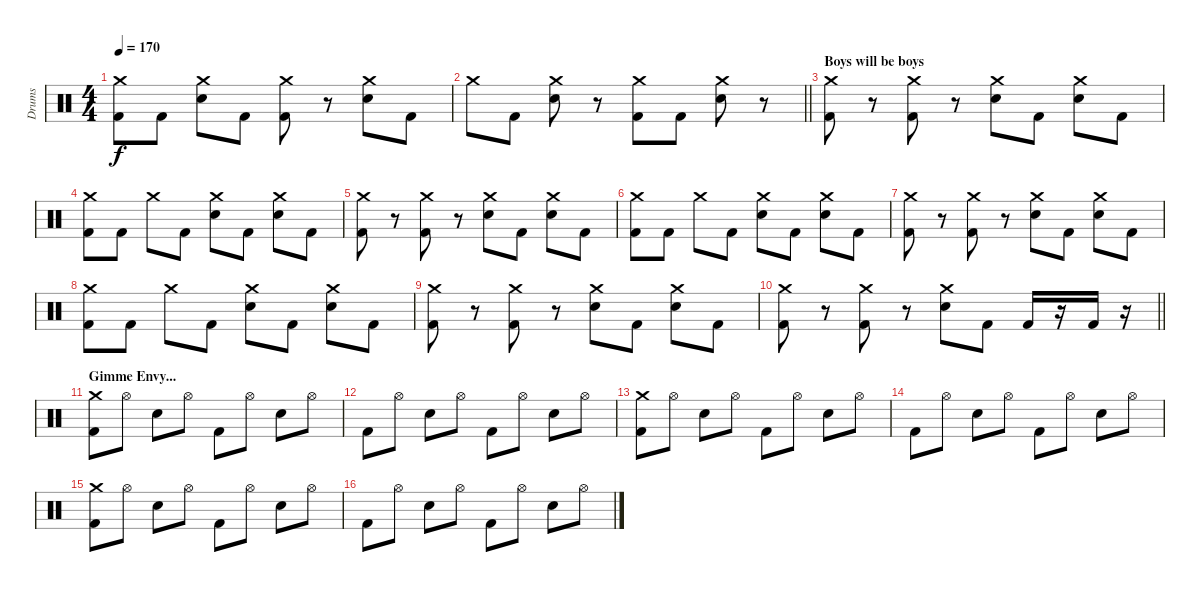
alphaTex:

\track ("Drums" "Drums") {instrument percussion}
\staff {score}
\articulation defaults
\ts (4 4)
\tempo 170
\clef neutral
\ks c
("Crash medium (hit)" "Kick (hit) 2").8{dy f} "Kick (hit) 2".8 ("Crash medium (hit)" "Electric Snare (hit)").8 "Kick (hit) 2".8 ("Crash medium (hit)" "Kick (hit) 2").8 r.8 ("Crash medium (hit)" "Electric Snare (hit)").8 "Kick (hit) 2".8 |
\barLineRight lightlight "Crash medium (hit)".8 "Kick (hit) 2".8
("Crash medium (hit)" "Electric Snare (hit)").8 r.8 ("Crash medium (hit)" "Kick (hit) 2").8 "Kick (hit) 2".8 ("Crash medium (hit)" "Electric Snare (hit)").8 r.8 |
\section ("" "Boys will be boys")
("Crash medium (hit)" "Kick (hit) 2").8 r.8 ("Crash medium (hit)" "Kick (hit) 2").8 r.8 ("Crash medium (hit)" "Electric Snare (hit)").8 "Kick (hit) 2".8 ("Crash medium (hit)" "Electric Snare (hit)").8 "Kick (hit) 2".8 |
("Crash medium (hit)" "Kick (hit) 2").8 "Kick (hit) 2".8 "Crash medium (hit)".8 "Kick (hit) 2".8 ("Crash medium (hit)" "Electric Snare (hit)").8 "Kick (hit) 2".8 ("Crash medium (hit)" "Electric Snare (hit)").8 "Kick (hit) 2".8 |
("Crash medium (hit)" "Kick (hit) 2").8 r.8 ("Crash medium (hit)" "Kick (hit) 2").8 r.8 ("Crash medium (hit)" "Electric Snare (hit)").8 "Kick (hit) 2".8 ("Crash medium (hit)" "Electric Snare (hit)").8 "Kick (hit) 2".8 |
("Crash medium (hit)" "Kick (hit) 2").8 "Kick (hit) 2".8 "Crash medium (hit)".8 "Kick (hit) 2".8 ("Crash medium (hit)" "Electric Snare (hit)").8 "Kick (hit) 2".8 ("Crash medium (hit)" "Electric Snare (hit)").8 "Kick (hit) 2".8 |
("Crash medium (hit)" "Kick (hit) 2").8 r.8 ("Crash medium (hit)" "Kick (hit) 2").8 r.8 ("Crash medium (hit)" "Electric Snare (hit)").8 "Kick (hit) 2".8 ("Crash medium (hit)" "Electric Snare (hit)").8 "Kick (hit) 2".8 |
("Crash medium (hit)" "Kick (hit) 2").8 "Kick (hit) 2".8 "Crash medium (hit)".8 "Kick (hit) 2".8 ("Crash medium (hit)" "Electric Snare (hit)").8 "Kick (hit) 2".8 ("Crash medium (hit)" "Electric Snare (hit)").8 "Kick (hit) 2".8 |
("Crash medium (hit)" "Kick (hit) 2").8 r.8 ("Crash medium (hit)" "Kick (hit) 2").8 r.8 ("Crash medium (hit)" "Electric Snare (hit)").8 "Kick (hit) 2".8 ("Crash medium (hit)" "Electric Snare (hit)").8 "Kick (hit) 2".8 |
\barLineRight lightlight
("Crash medium (hit)" "Kick (hit) 2").8 r.8 ("Crash medium (hit)" "Kick (hit) 2").8 r.8 ("Crash medium (hit)" "Electric Snare (hit)").8 "Kick (hit) 2".8 "Kick (hit) 2".16 r.16 "Kick (hit) 2".16 r.16 |
\section ("" "Gimme Envy...")
("Crash medium (hit)" "Kick (hit) 2").8 "Hi-Hat (open)".8 "Electric Snare (hit)".8 "Hi-Hat (open)".8 "Kick (hit) 2".8 "Hi-Hat (open)".8 "Electric Snare (hit)".8 "Hi-Hat (open)".8 |
"Kick (hit) 2".8 "Hi-Hat (open)".8 "Electric Snare (hit)".8 "Hi-Hat (open)".8 "Kick (hit) 2".8 "Hi-Hat (open)".8 "Electric Snare (hit)".8 "Hi-Hat (open)".8 |
("Crash medium (hit)" "Kick (hit) 2").8 "Hi-Hat (open)".8 "Electric Snare (hit)".8 "Hi-Hat (open)".8 "Kick (hit) 2".8 "Hi-Hat (open)".8 "Electric Snare (hit)".8 "Hi-Hat (open)".8 |
"Kick (hit) 2".8 "Hi-Hat (open)".8 "Electric Snare (hit)".8 "Hi-Hat (open)".8 "Kick (hit) 2".8 "Hi-Hat (open)".8 "Electric Snare (hit)".8 "Hi-Hat (open)".8 |
("Crash medium (hit)" "Kick (hit) 2").8 "Hi-Hat (open)".8 "Electric Snare (hit)".8 "Hi-Hat (open)".8 "Kick (hit) 2".8 "Hi-Hat (open)".8 "Electric Snare (hit)".8 "Hi-Hat (open)".8 |
"Kick (hit) 2".8 "Hi-Hat (open)".8 "Electric Snare (hit)".8 "Hi-Hat (open)".8 "Kick (hit) 2".8 "Hi-Hat (open)".8 "Electric Snare (hit)".8 "Hi-Hat (open)".8
